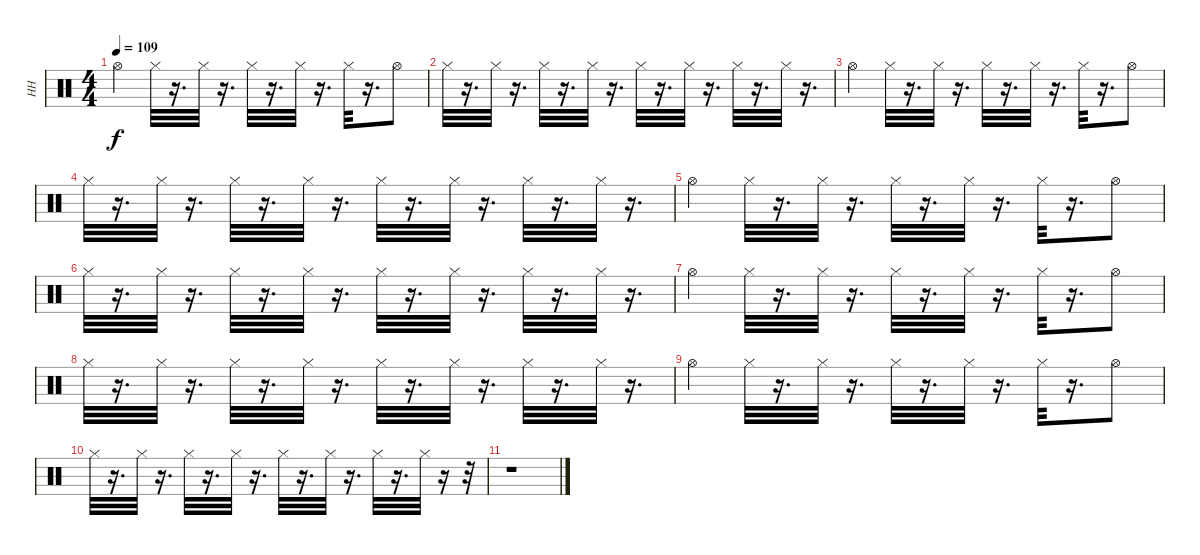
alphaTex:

\track ("HH" "HH") {instrument percussion}
\staff {score}
\articulation defaults
\ts (4 4)
\tempo 109
\clef neutral
\ks c "Hi-Hat (open)".4{dy f} "Hi-Hat (closed)".32
r.16{d} "Hi-Hat (closed)".32 r.16{d} "Hi-Hat (closed)".32 r.16{d} "Hi-Hat (closed)".32 r.16{d} "Hi-Hat (closed)".32 r.16{d} "Hi-Hat (open)".8 |
"Hi-Hat (closed)".32 r.16{d} "Hi-Hat (closed)".32 r.16{d} "Hi-Hat (closed)".32 r.16{d} "Hi-Hat (closed)".32 r.16{d} "Hi-Hat (closed)".32 r.16{d} "Hi-Hat (closed)".32 r.16{d} "Hi-Hat (closed)".32 r.16{d} "Hi-Hat (closed)".32 r.16{d} |
"Hi-Hat (open)".4 "Hi-Hat (closed)".32 r.16{d} "Hi-Hat (closed)".32 r.16{d} "Hi-Hat (closed)".32 r.16{d} "Hi-Hat (closed)".32 r.16{d} "Hi-Hat (closed)".32 r.16{d} "Hi-Hat (open)".8 |
"Hi-Hat (closed)".32 r.16{d} "Hi-Hat (closed)".32 r.16{d} "Hi-Hat (closed)".32 r.16{d} "Hi-Hat (closed)".32 r.16{d} "Hi-Hat (closed)".32 r.16{d} "Hi-Hat (closed)".32 r.16{d} "Hi-Hat (closed)".32 r.16{d} "Hi-Hat (closed)".32 r.16{d} |
"Hi-Hat (open)".4 "Hi-Hat (closed)".32 r.16{d} "Hi-Hat (closed)".32 r.16{d} "Hi-Hat (closed)".32 r.16{d} "Hi-Hat (closed)".32 r.16{d} "Hi-Hat (closed)".32 r.16{d} "Hi-Hat (open)".8 |
"Hi-Hat (closed)".32 r.16{d} "Hi-Hat (closed)".32 r.16{d} "Hi-Hat (closed)".32 r.16{d} "Hi-Hat (closed)".32 r.16{d} "Hi-Hat (closed)".32 r.16{d} "Hi-Hat (closed)".32 r.16{d} "Hi-Hat (closed)".32 r.16{d} "Hi-Hat (closed)".32 r.16{d} |
"Hi-Hat (open)".4 "Hi-Hat (closed)".32 r.16{d} "Hi-Hat (closed)".32 r.16{d} "Hi-Hat (closed)".32 r.16{d} "Hi-Hat (closed)".32 r.16{d} "Hi-Hat (closed)".32 r.16{d} "Hi-Hat (open)".8 |
"Hi-Hat (closed)".32 r.16{d} "Hi-Hat (closed)".32 r.16{d} "Hi-Hat (closed)".32 r.16{d} "Hi-Hat (closed)".32 r.16{d} "Hi-Hat (closed)".32 r.16{d} "Hi-Hat (closed)".32 r.16{d} "Hi-Hat (closed)".32 r.16{d} "Hi-Hat (closed)".32 r.16{d} |
"Hi-Hat (open)".4 "Hi-Hat (closed)".32 r.16{d} "Hi-Hat (closed)".32 r.16{d} "Hi-Hat (closed)".32 r.16{d} "Hi-Hat (closed)".32 r.16{d} "Hi-Hat (closed)".32 r.16{d} "Hi-Hat (open)".8 |
"Hi-Hat (closed)".32 r.16{d} "Hi-Hat (closed)".32 r.16{d} "Hi-Hat (closed)".32 r.16{d} "Hi-Hat (closed)".32 r.16{d} "Hi-Hat (closed)".32 r.16{d} "Hi-Hat (closed)".32 r.16{d} "Hi-Hat (closed)".32 r.16{d} "Hi-Hat (closed)".32 r.16 r.32 |
r.1
